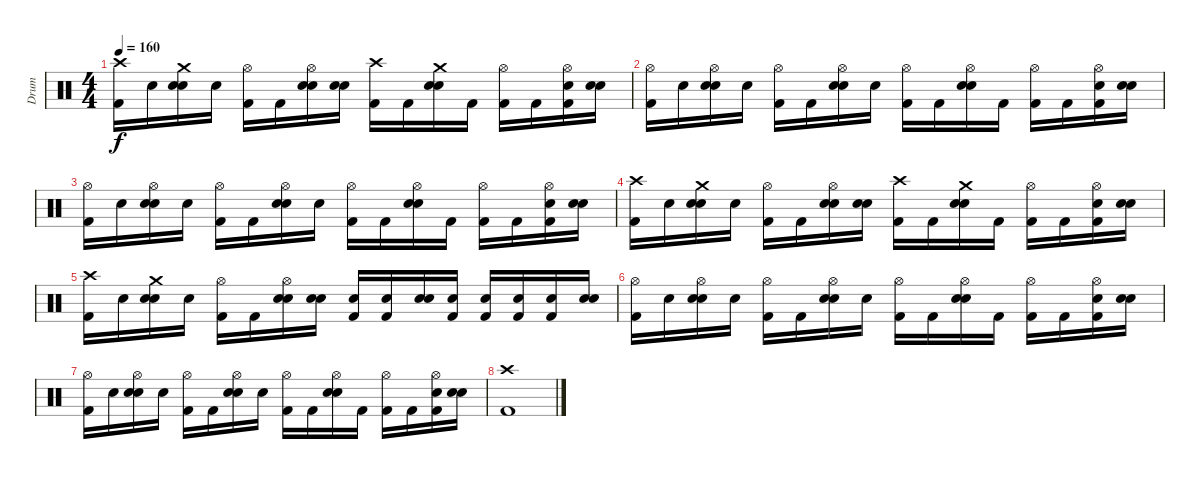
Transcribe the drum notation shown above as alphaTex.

\track ("Drum" "Drum") {instrument percussion}
\staff {score}
\articulation defaults
\ts (4 4)
\tempo 160
\clef neutral
\ks c
("Crash high (hit)" "Kick (hit) 2").16{dy f} "Snare (hit)"{x}.16 ("Crash medium (hit)" "Electric Snare (hit)" "Snare (hit)"{x}).16 "Snare (hit)"{x}.16 ("Hi-Hat (open)" "Kick (hit) 2").16 "Kick (hit) 2".16 ("Hi-Hat (open)" "Electric Snare (hit)" "Snare (hit)"{x}).16 ("Electric Snare (hit)" "Snare (hit)"{x}).16 ("Crash high (hit)" "Kick (hit) 2").16 "Kick (hit) 2".16 ("Crash medium (hit)" "Electric Snare (hit)" "Snare (hit)"{x}).16 "Kick (hit) 2".16 ("Hi-Hat (open)" "Kick (hit) 2"{x}).16 "Kick (hit) 2".16 ("Hi-Hat (open)" "Electric Snare (hit)" "Kick (hit) 2"{x}).16 ("Electric Snare (hit)" "Snare (hit)"{x}).16 |
("Hi-Hat (open)" "Kick (hit) 2").16 "Snare (hit)"{x}.16 ("Hi-Hat (open)" "Electric Snare (hit)" "Snare (hit)"{x}).16 "Snare (hit)"{x}.16 ("Hi-Hat (open)" "Kick (hit) 2").16 "Kick (hit) 2".16 ("Hi-Hat (open)" "Electric Snare (hit)" "Snare (hit)"{x}).16 "Snare (hit)"{x}.16 ("Hi-Hat (open)" "Kick (hit) 2").16 "Kick (hit) 2".16 ("Hi-Hat (open)" "Electric Snare (hit)" "Snare (hit)"{x}).16 "Kick (hit) 2".16 ("Hi-Hat (open)" "Kick (hit) 2"{x}).16 "Kick (hit) 2".16 ("Hi-Hat (open)" "Electric Snare (hit)" "Kick (hit) 2"{x}).16 ("Electric Snare (hit)" "Snare (hit)"{x}).16 |
("Hi-Hat (open)" "Kick (hit) 2").16 "Snare (hit)"{x}.16 ("Hi-Hat (open)" "Electric Snare (hit)" "Snare (hit)"{x}).16 "Snare (hit)"{x}.16 ("Hi-Hat (open)" "Kick (hit) 2").16 "Kick (hit) 2".16 ("Hi-Hat (open)" "Electric Snare (hit)" "Snare (hit)"{x}).16 "Snare (hit)"{x}.16 ("Hi-Hat (open)" "Kick (hit) 2").16 "Kick (hit) 2".16 ("Hi-Hat (open)" "Electric Snare (hit)" "Snare (hit)"{x}).16 "Kick (hit) 2".16 ("Hi-Hat (open)" "Kick (hit) 2"{x}).16 "Kick (hit) 2".16 ("Hi-Hat (open)" "Electric Snare (hit)" "Kick (hit) 2"{x}).16 ("Electric Snare (hit)" "Snare (hit)"{x}).16 |
("Crash high (hit)" "Kick (hit) 2").16 "Snare (hit)"{x}.16 ("Crash medium (hit)" "Electric Snare (hit)" "Snare (hit)"{x}).16 "Snare (hit)"{x}.16 ("Hi-Hat (open)" "Kick (hit) 2").16 "Kick (hit) 2"{x}.16 ("Hi-Hat (open)" "Electric Snare (hit)" "Snare (hit)"{x}).16 ("Electric Snare (hit)" "Snare (hit)"{x}).16 ("Crash high (hit)" "Kick (hit) 2").16 "Kick (hit) 2"{x}.16 ("Crash medium (hit)" "Electric Snare (hit)" "Snare (hit)"{x}).16 "Kick (hit) 2"{x}.16 ("Hi-Hat (open)" "Kick (hit) 2").16 "Kick (hit) 2"{x}.16 ("Hi-Hat (open)" "Electric Snare (hit)" "Kick (hit) 2"{x}).16 ("Electric Snare (hit)" "Snare (hit)"{x}).16 |
("Crash high (hit)" "Kick (hit) 2").16 "Snare (hit)"{x}.16 ("Crash medium (hit)" "Electric Snare (hit)" "Snare (hit)"{x}).16 "Snare (hit)"{x}.16 ("Hi-Hat (open)" "Kick (hit) 2").16 "Kick (hit) 2".16 ("Hi-Hat (open)" "Electric Snare (hit)" "Snare (hit)"{x}).16 ("Electric Snare (hit)" "Snare (hit)"{x}).16 ("Electric Snare (hit)" "Kick (hit) 2").16 ("Electric Snare (hit)" "Kick (hit) 2").16 ("Electric Snare (hit)" "Snare (hit)"{x}).16 ("Electric Snare (hit)" "Kick (hit) 2").16 ("Electric Snare (hit)" "Kick (hit) 2").16 ("Electric Snare (hit)" "Kick (hit) 2"{x}).16 ("Electric Snare (hit)" "Kick (hit) 2").16 ("Electric Snare (hit)" "Snare (hit)"{x}).16 |
("Hi-Hat (open)" "Kick (hit) 2").16 "Snare (hit)"{x}.16 ("Hi-Hat (open)" "Electric Snare (hit)" "Snare (hit)"{x}).16 "Snare (hit)"{x}.16 ("Hi-Hat (open)" "Kick (hit) 2").16 "Kick (hit) 2".16 ("Hi-Hat (open)" "Electric Snare (hit)" "Snare (hit)"{x}).16 "Snare (hit)"{x}.16 ("Hi-Hat (open)" "Kick (hit) 2").16 "Kick (hit) 2".16 ("Hi-Hat (open)" "Electric Snare (hit)" "Snare (hit)"{x}).16 "Kick (hit) 2".16 ("Hi-Hat (open)" "Kick (hit) 2"{x}).16 "Kick (hit) 2".16 ("Hi-Hat (open)" "Electric Snare (hit)" "Kick (hit) 2"{x}).16 ("Electric Snare (hit)" "Snare (hit)"{x}).16 |
("Hi-Hat (open)" "Kick (hit) 2").16 "Snare (hit)"{x}.16 ("Hi-Hat (open)" "Electric Snare (hit)" "Snare (hit)"{x}).16 "Snare (hit)"{x}.16 ("Hi-Hat (open)" "Kick (hit) 2").16 "Kick (hit) 2".16 ("Hi-Hat (open)" "Electric Snare (hit)" "Snare (hit)"{x}).16 "Snare (hit)"{x}.16 ("Hi-Hat (open)" "Kick (hit) 2").16 "Kick (hit) 2".16 ("Hi-Hat (open)" "Electric Snare (hit)" "Snare (hit)"{x}).16 "Kick (hit) 2".16 ("Hi-Hat (open)" "Kick (hit) 2"{x}).16 "Kick (hit) 2".16 ("Hi-Hat (open)" "Electric Snare (hit)" "Kick (hit) 2"{x}).16 ("Electric Snare (hit)" "Snare (hit)"{x}).16 |
("Crash high (hit)" "Kick (hit) 2").1
